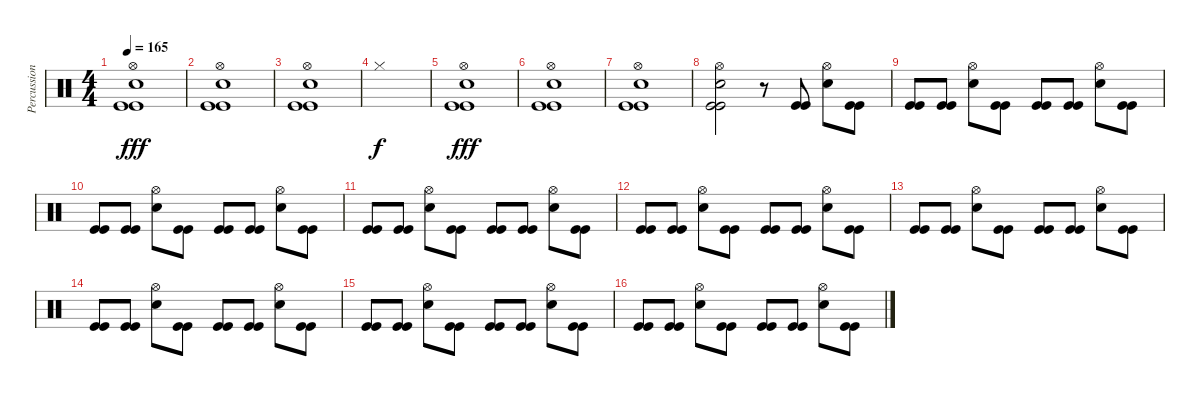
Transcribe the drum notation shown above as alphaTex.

\track ("Percussions" "Percussion") {instrument percussion}
\staff {score}
\articulation defaults
\ts (4 4)
\tempo 165
\clef neutral
\ks c
("Kick (hit)" "Kick (hit)" "Snare (hit) 2" "Hi-Hat (open)").1{dy fff} |
("Kick (hit)" "Kick (hit)" "Snare (hit) 2" "Hi-Hat (open)").1 |
("Kick (hit)" "Kick (hit)" "Snare (hit) 2" "Hi-Hat (open)").1 |
"Hi-Hat (closed)".1{dy f} |
("Kick (hit)" "Kick (hit)" "Snare (hit) 2" "Hi-Hat (open)").1{dy fff} |
("Kick (hit)" "Kick (hit)" "Snare (hit) 2" "Hi-Hat (open)").1 |
("Kick (hit)" "Kick (hit)" "Snare (hit) 2" "Hi-Hat (open)").1 |
("Kick (hit)" "Kick (hit)" "Snare (hit) 2" "Hi-Hat (open)").2 r.8 ("Kick (hit)" "Kick (hit)").8 ("Snare (hit) 2" "Hi-Hat (open)").8 ("Kick (hit)" "Kick (hit)").8 |
("Kick (hit)" "Kick (hit)").8 ("Kick (hit)" "Kick (hit)").8 ("Snare (hit) 2" "Hi-Hat (open)").8 ("Kick (hit)" "Kick (hit)").8 ("Kick (hit)" "Kick (hit)").8 ("Kick (hit)" "Kick (hit)").8 ("Snare (hit) 2" "Hi-Hat (open)").8 ("Kick (hit)" "Kick (hit)").8 |
("Kick (hit)" "Kick (hit)").8 ("Kick (hit)" "Kick (hit)").8 ("Snare (hit) 2" "Hi-Hat (open)").8 ("Kick (hit)" "Kick (hit)").8 ("Kick (hit)" "Kick (hit)").8 ("Kick (hit)" "Kick (hit)").8 ("Snare (hit) 2" "Hi-Hat (open)").8 ("Kick (hit)" "Kick (hit)").8 |
("Kick (hit)" "Kick (hit)").8 ("Kick (hit)" "Kick (hit)").8 ("Snare (hit) 2" "Hi-Hat (open)").8 ("Kick (hit)" "Kick (hit)").8 ("Kick (hit)" "Kick (hit)").8 ("Kick (hit)" "Kick (hit)").8 ("Snare (hit) 2" "Hi-Hat (open)").8 ("Kick (hit)" "Kick (hit)").8 |
("Kick (hit)" "Kick (hit)").8 ("Kick (hit)" "Kick (hit)").8 ("Snare (hit) 2" "Hi-Hat (open)").8 ("Kick (hit)" "Kick (hit)").8 ("Kick (hit)" "Kick (hit)").8 ("Kick (hit)" "Kick (hit)").8 ("Snare (hit) 2" "Hi-Hat (open)").8 ("Kick (hit)" "Kick (hit)").8 |
("Kick (hit)" "Kick (hit)").8 ("Kick (hit)" "Kick (hit)").8 ("Snare (hit) 2" "Hi-Hat (open)").8 ("Kick (hit)" "Kick (hit)").8 ("Kick (hit)" "Kick (hit)").8 ("Kick (hit)" "Kick (hit)").8 ("Snare (hit) 2" "Hi-Hat (open)").8 ("Kick (hit)" "Kick (hit)").8 |
("Kick (hit)" "Kick (hit)").8 ("Kick (hit)" "Kick (hit)").8 ("Snare (hit) 2" "Hi-Hat (open)").8 ("Kick (hit)" "Kick (hit)").8 ("Kick (hit)" "Kick (hit)").8 ("Kick (hit)" "Kick (hit)").8 ("Snare (hit) 2" "Hi-Hat (open)").8 ("Kick (hit)" "Kick (hit)").8 |
("Kick (hit)" "Kick (hit)").8 ("Kick (hit)" "Kick (hit)").8 ("Snare (hit) 2" "Hi-Hat (open)").8 ("Kick (hit)" "Kick (hit)").8 ("Kick (hit)" "Kick (hit)").8 ("Kick (hit)" "Kick (hit)").8 ("Snare (hit) 2" "Hi-Hat (open)").8 ("Kick (hit)" "Kick (hit)").8 |
("Kick (hit)" "Kick (hit)").8 ("Kick (hit)" "Kick (hit)").8 ("Snare (hit) 2" "Hi-Hat (open)").8 ("Kick (hit)" "Kick (hit)").8 ("Kick (hit)" "Kick (hit)").8 ("Kick (hit)" "Kick (hit)").8 ("Snare (hit) 2" "Hi-Hat (open)").8 ("Kick (hit)" "Kick (hit)").8
